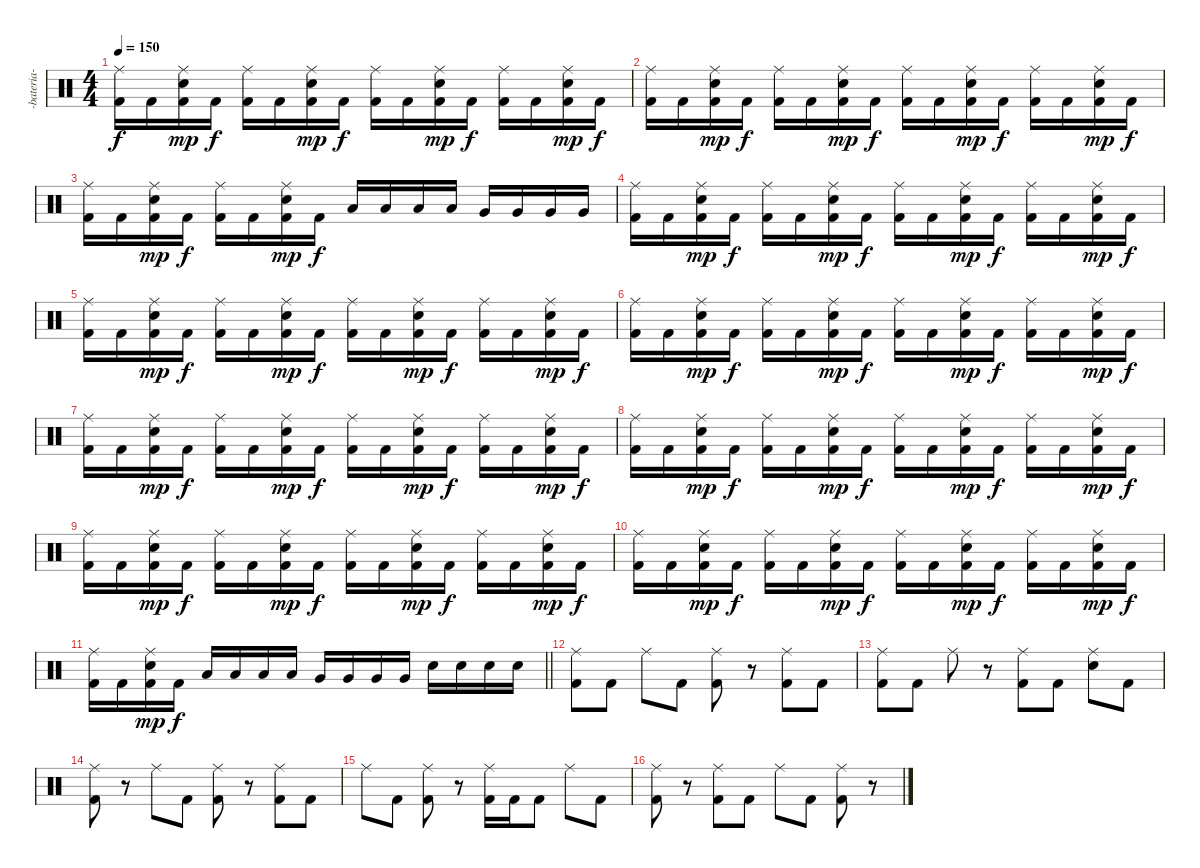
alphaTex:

\track ("-bateria-" "-bateria-") {instrument percussion}
\staff {score}
\articulation defaults
\ts (4 4)
\tempo 150
\clef neutral
\ks c
("Ride (middle)" "Kick (hit) 2").16{dy f} "Kick (hit) 2".16 ("Ride (middle)" "Electric Snare (hit)" "Kick (hit) 2").16{dy mp} "Kick (hit) 2".16{dy f} ("Ride (middle)" "Kick (hit) 2").16 "Kick (hit) 2".16 ("Ride (middle)" "Electric Snare (hit)" "Kick (hit) 2").16{dy mp} "Kick (hit) 2".16{dy f} ("Ride (middle)" "Kick (hit) 2").16 "Kick (hit) 2".16 ("Ride (middle)" "Electric Snare (hit)" "Kick (hit) 2").16{dy mp} "Kick (hit) 2".16{dy f} ("Ride (middle)" "Kick (hit) 2").16 "Kick (hit) 2".16 ("Ride (middle)" "Electric Snare (hit)" "Kick (hit) 2").16{dy mp} "Kick (hit) 2".16{dy f} |
("Ride (middle)" "Kick (hit) 2").16 "Kick (hit) 2".16 ("Ride (middle)" "Electric Snare (hit)" "Kick (hit) 2").16{dy mp} "Kick (hit) 2".16{dy f} ("Ride (middle)" "Kick (hit) 2").16 "Kick (hit) 2".16 ("Ride (middle)" "Electric Snare (hit)" "Kick (hit) 2").16{dy mp} "Kick (hit) 2".16{dy f} ("Ride (middle)" "Kick (hit) 2").16 "Kick (hit) 2".16 ("Ride (middle)" "Electric Snare (hit)" "Kick (hit) 2").16{dy mp} "Kick (hit) 2".16{dy f} ("Ride (middle)" "Kick (hit) 2").16 "Kick (hit) 2".16 ("Ride (middle)" "Electric Snare (hit)" "Kick (hit) 2").16{dy mp} "Kick (hit) 2".16{dy f} |
("Ride (middle)" "Kick (hit) 2").16 "Kick (hit) 2".16 ("Ride (middle)" "Electric Snare (hit)" "Kick (hit) 2").16{dy mp} "Kick (hit) 2".16{dy f} ("Ride (middle)" "Kick (hit) 2").16 "Kick (hit) 2".16 ("Ride (middle)" "Electric Snare (hit)" "Kick (hit) 2").16{dy mp} "Kick (hit) 2".16{dy f} "Low Tom (hit)".16 "Low Tom (hit)".16 "Low Tom (hit)".16 "Low Tom (hit)".16 "Very Low Tom (hit)".16 "Very Low Tom (hit)".16 "Very Low Tom (hit)".16 "Very Low Tom (hit)".16 |
("Ride (middle)" "Kick (hit) 2").16 "Kick (hit) 2".16 ("Ride (middle)" "Electric Snare (hit)" "Kick (hit) 2").16{dy mp} "Kick (hit) 2".16{dy f} ("Ride (middle)" "Kick (hit) 2").16 "Kick (hit) 2".16 ("Ride (middle)" "Electric Snare (hit)" "Kick (hit) 2").16{dy mp} "Kick (hit) 2".16{dy f} ("Ride (middle)" "Kick (hit) 2").16 "Kick (hit) 2".16 ("Ride (middle)" "Electric Snare (hit)" "Kick (hit) 2").16{dy mp} "Kick (hit) 2".16{dy f} ("Ride (middle)" "Kick (hit) 2").16 "Kick (hit) 2".16 ("Ride (middle)" "Electric Snare (hit)" "Kick (hit) 2").16{dy mp} "Kick (hit) 2".16{dy f} |
("Ride (middle)" "Kick (hit) 2").16 "Kick (hit) 2".16 ("Ride (middle)" "Electric Snare (hit)" "Kick (hit) 2").16{dy mp} "Kick (hit) 2".16{dy f} ("Ride (middle)" "Kick (hit) 2").16 "Kick (hit) 2".16 ("Ride (middle)" "Electric Snare (hit)" "Kick (hit) 2").16{dy mp} "Kick (hit) 2".16{dy f} ("Ride (middle)" "Kick (hit) 2").16 "Kick (hit) 2".16 ("Ride (middle)" "Electric Snare (hit)" "Kick (hit) 2").16{dy mp} "Kick (hit) 2".16{dy f} ("Ride (middle)" "Kick (hit) 2").16 "Kick (hit) 2".16 ("Ride (middle)" "Electric Snare (hit)" "Kick (hit) 2").16{dy mp} "Kick (hit) 2".16{dy f} |
("Ride (middle)" "Kick (hit) 2").16 "Kick (hit) 2".16 ("Ride (middle)" "Electric Snare (hit)" "Kick (hit) 2").16{dy mp} "Kick (hit) 2".16{dy f} ("Ride (middle)" "Kick (hit) 2").16 "Kick (hit) 2".16 ("Ride (middle)" "Electric Snare (hit)" "Kick (hit) 2").16{dy mp} "Kick (hit) 2".16{dy f} ("Ride (middle)" "Kick (hit) 2").16 "Kick (hit) 2".16 ("Ride (middle)" "Electric Snare (hit)" "Kick (hit) 2").16{dy mp} "Kick (hit) 2".16{dy f} ("Ride (middle)" "Kick (hit) 2").16 "Kick (hit) 2".16 ("Ride (middle)" "Electric Snare (hit)" "Kick (hit) 2").16{dy mp} "Kick (hit) 2".16{dy f} |
("Ride (middle)" "Kick (hit) 2").16 "Kick (hit) 2".16 ("Ride (middle)" "Electric Snare (hit)" "Kick (hit) 2").16{dy mp} "Kick (hit) 2".16{dy f} ("Ride (middle)" "Kick (hit) 2").16 "Kick (hit) 2".16 ("Ride (middle)" "Electric Snare (hit)" "Kick (hit) 2").16{dy mp} "Kick (hit) 2".16{dy f} ("Ride (middle)" "Kick (hit) 2").16 "Kick (hit) 2".16 ("Ride (middle)" "Electric Snare (hit)" "Kick (hit) 2").16{dy mp} "Kick (hit) 2".16{dy f} ("Ride (middle)" "Kick (hit) 2").16 "Kick (hit) 2".16 ("Ride (middle)" "Electric Snare (hit)" "Kick (hit) 2").16{dy mp} "Kick (hit) 2".16{dy f} |
("Ride (middle)" "Kick (hit) 2").16 "Kick (hit) 2".16 ("Ride (middle)" "Electric Snare (hit)" "Kick (hit) 2").16{dy mp} "Kick (hit) 2".16{dy f} ("Ride (middle)" "Kick (hit) 2").16 "Kick (hit) 2".16 ("Ride (middle)" "Electric Snare (hit)" "Kick (hit) 2").16{dy mp} "Kick (hit) 2".16{dy f} ("Ride (middle)" "Kick (hit) 2").16 "Kick (hit) 2".16 ("Ride (middle)" "Electric Snare (hit)" "Kick (hit) 2").16{dy mp} "Kick (hit) 2".16{dy f} ("Ride (middle)" "Kick (hit) 2").16 "Kick (hit) 2".16 ("Ride (middle)" "Electric Snare (hit)" "Kick (hit) 2").16{dy mp} "Kick (hit) 2".16{dy f} |
("Ride (middle)" "Kick (hit) 2").16 "Kick (hit) 2".16 ("Ride (middle)" "Electric Snare (hit)" "Kick (hit) 2").16{dy mp} "Kick (hit) 2".16{dy f} ("Ride (middle)" "Kick (hit) 2").16 "Kick (hit) 2".16 ("Ride (middle)" "Electric Snare (hit)" "Kick (hit) 2").16{dy mp} "Kick (hit) 2".16{dy f} ("Ride (middle)" "Kick (hit) 2").16 "Kick (hit) 2".16 ("Ride (middle)" "Electric Snare (hit)" "Kick (hit) 2").16{dy mp} "Kick (hit) 2".16{dy f} ("Ride (middle)" "Kick (hit) 2").16 "Kick (hit) 2".16 ("Ride (middle)" "Electric Snare (hit)" "Kick (hit) 2").16{dy mp} "Kick (hit) 2".16{dy f} |
("Ride (middle)" "Kick (hit) 2").16 "Kick (hit) 2".16 ("Ride (middle)" "Electric Snare (hit)" "Kick (hit) 2").16{dy mp} "Kick (hit) 2".16{dy f} ("Ride (middle)" "Kick (hit) 2").16 "Kick (hit) 2".16 ("Ride (middle)" "Electric Snare (hit)" "Kick (hit) 2").16{dy mp} "Kick (hit) 2".16{dy f} ("Ride (middle)" "Kick (hit) 2").16 "Kick (hit) 2".16 ("Ride (middle)" "Electric Snare (hit)" "Kick (hit) 2").16{dy mp} "Kick (hit) 2".16{dy f} ("Ride (middle)" "Kick (hit) 2").16 "Kick (hit) 2".16 ("Ride (middle)" "Electric Snare (hit)" "Kick (hit) 2").16{dy mp} "Kick (hit) 2".16{dy f} |
\barLineRight lightlight
("Ride (middle)" "Kick (hit) 2").16 "Kick (hit) 2".16 ("Ride (middle)" "Electric Snare (hit)" "Kick (hit) 2").16{dy mp} "Kick (hit) 2".16{dy f} "Low Tom (hit)".16 "Low Tom (hit)".16 "Low Tom (hit)".16 "Low Tom (hit)".16 "Very Low Tom (hit)".16 "Very Low Tom (hit)".16 "Very Low Tom (hit)".16 "Very Low Tom (hit)".16 "Electric Snare (hit)".16 "Electric Snare (hit)".16 "Electric Snare (hit)".16 "Electric Snare (hit)".16 |
\section ("" "")
("Ride (middle)" "Kick (hit) 2").8 "Kick (hit) 2".8 "Ride (middle)".8 "Kick (hit) 2".8 ("Ride (middle)" "Kick (hit) 2").8 r.8 ("Ride (middle)" "Kick (hit) 2").8 "Kick (hit) 2".8 |
("Ride (middle)" "Kick (hit) 2").8 "Kick (hit) 2".8 "Ride (middle)".8 r.8 ("Ride (middle)" "Kick (hit) 2").8 "Kick (hit) 2".8 ("Ride (middle)" "Electric Snare (hit)").8 "Kick (hit) 2".8 |
("Ride (middle)" "Kick (hit) 2").8 r.8 "Ride (middle)".8 "Kick (hit) 2".8 ("Ride (middle)" "Kick (hit) 2").8 r.8 ("Ride (middle)" "Kick (hit) 2").8 "Kick (hit) 2".8 |
"Ride (middle)".8 "Kick (hit) 2".8 ("Ride (middle)" "Kick (hit) 2").8 r.8 ("Ride (middle)" "Kick (hit) 2").16 "Kick (hit) 2".16 "Kick (hit) 2".8 "Ride (middle)".8 "Kick (hit) 2".8 |
("Ride (middle)" "Kick (hit) 2").8 r.8 ("Ride (middle)" "Kick (hit) 2").8 "Kick (hit) 2".8 "Ride (middle)".8 "Kick (hit) 2".8 ("Ride (middle)" "Kick (hit) 2").8 r.8
